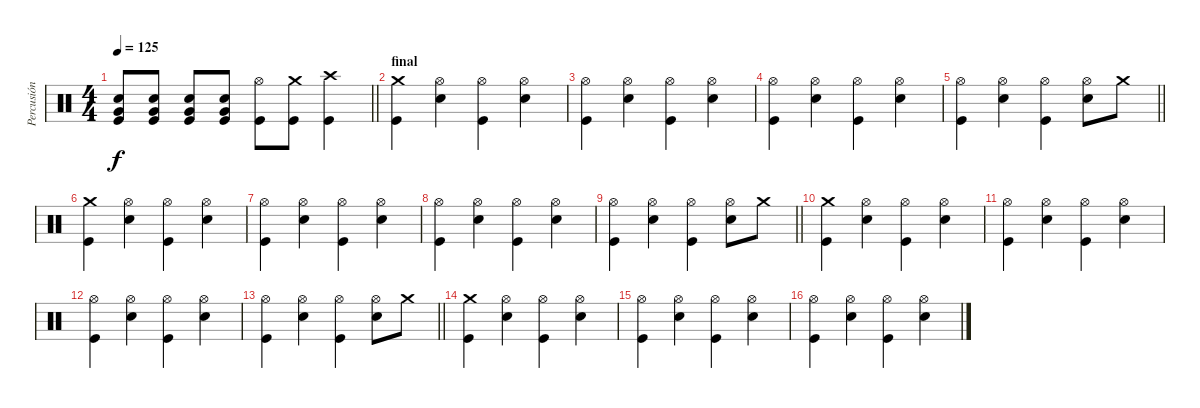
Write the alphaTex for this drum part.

\track ("Percusión" "Percusión") {instrument percussion}
\staff {score}
\articulation defaults
\ts (4 4)
\tempo 125
\clef neutral
\barLineRight lightlight
\ks c
("Electric Snare (hit)" "Very Low Tom (hit)" "Kick (hit)").8{dy f} ("Electric Snare (hit)" "Very Low Tom (hit)" "Kick (hit)").8 ("Electric Snare (hit)" "Very Low Tom (hit)" "Kick (hit)").8 ("Electric Snare (hit)" "Very Low Tom (hit)" "Kick (hit)").8 ("Hi-Hat (open)" "Kick (hit)").8 ("Crash medium (hit)" "Kick (hit)").8 ("Crash high (hit)" "Kick (hit)").4 |
\section ("" "final")
("Crash medium (hit)" "Kick (hit)").4 ("Hi-Hat (open)" "Electric Snare (hit)").4 ("Hi-Hat (open)" "Kick (hit)").4 ("Hi-Hat (open)" "Electric Snare (hit)").4 |
("Hi-Hat (open)" "Kick (hit)").4 ("Hi-Hat (open)" "Electric Snare (hit)").4 ("Hi-Hat (open)" "Kick (hit)").4 ("Hi-Hat (open)" "Electric Snare (hit)").4 |
("Hi-Hat (open)" "Kick (hit)").4 ("Hi-Hat (open)" "Electric Snare (hit)").4 ("Hi-Hat (open)" "Kick (hit)").4 ("Hi-Hat (open)" "Electric Snare (hit)").4 |
\barLineRight lightlight
("Hi-Hat (open)" "Kick (hit)").4 ("Hi-Hat (open)" "Electric Snare (hit)").4 ("Hi-Hat (open)" "Kick (hit)").4 ("Hi-Hat (open)" "Electric Snare (hit)").8 "Crash medium (hit)".8 |
("Crash medium (hit)" "Kick (hit)").4{volume 12} ("Hi-Hat (open)" "Electric Snare (hit)").4 ("Hi-Hat (open)" "Kick (hit)").4 ("Hi-Hat (open)" "Electric Snare (hit)").4 |
("Hi-Hat (open)" "Kick (hit)").4 ("Hi-Hat (open)" "Electric Snare (hit)").4 ("Hi-Hat (open)" "Kick (hit)").4 ("Hi-Hat (open)" "Electric Snare (hit)").4 |
("Hi-Hat (open)" "Kick (hit)").4 ("Hi-Hat (open)" "Electric Snare (hit)").4 ("Hi-Hat (open)" "Kick (hit)").4 ("Hi-Hat (open)" "Electric Snare (hit)").4 |
\barLineRight lightlight
("Hi-Hat (open)" "Kick (hit)").4 ("Hi-Hat (open)" "Electric Snare (hit)").4 ("Hi-Hat (open)" "Kick (hit)").4 ("Hi-Hat (open)" "Electric Snare (hit)").8 "Crash medium (hit)".8 |
("Crash medium (hit)" "Kick (hit)").4 ("Hi-Hat (open)" "Electric Snare (hit)").4 ("Hi-Hat (open)" "Kick (hit)").4 ("Hi-Hat (open)" "Electric Snare (hit)").4 |
("Hi-Hat (open)" "Kick (hit)").4 ("Hi-Hat (open)" "Electric Snare (hit)").4 ("Hi-Hat (open)" "Kick (hit)").4 ("Hi-Hat (open)" "Electric Snare (hit)").4 |
("Hi-Hat (open)" "Kick (hit)").4 ("Hi-Hat (open)" "Electric Snare (hit)").4 ("Hi-Hat (open)" "Kick (hit)").4 ("Hi-Hat (open)" "Electric Snare (hit)").4 |
\barLineRight lightlight
("Hi-Hat (open)" "Kick (hit)").4 ("Hi-Hat (open)" "Electric Snare (hit)").4 ("Hi-Hat (open)" "Kick (hit)").4 ("Hi-Hat (open)" "Electric Snare (hit)").8 "Crash medium (hit)".8 |
("Crash medium (hit)" "Kick (hit)").4 ("Hi-Hat (open)" "Electric Snare (hit)").4 ("Hi-Hat (open)" "Kick (hit)").4 ("Hi-Hat (open)" "Electric Snare (hit)").4 |
("Hi-Hat (open)" "Kick (hit)").4 ("Hi-Hat (open)" "Electric Snare (hit)").4 ("Hi-Hat (open)" "Kick (hit)").4 ("Hi-Hat (open)" "Electric Snare (hit)").4 |
("Hi-Hat (open)" "Kick (hit)").4 ("Hi-Hat (open)" "Electric Snare (hit)").4 ("Hi-Hat (open)" "Kick (hit)").4 ("Hi-Hat (open)" "Electric Snare (hit)").4
